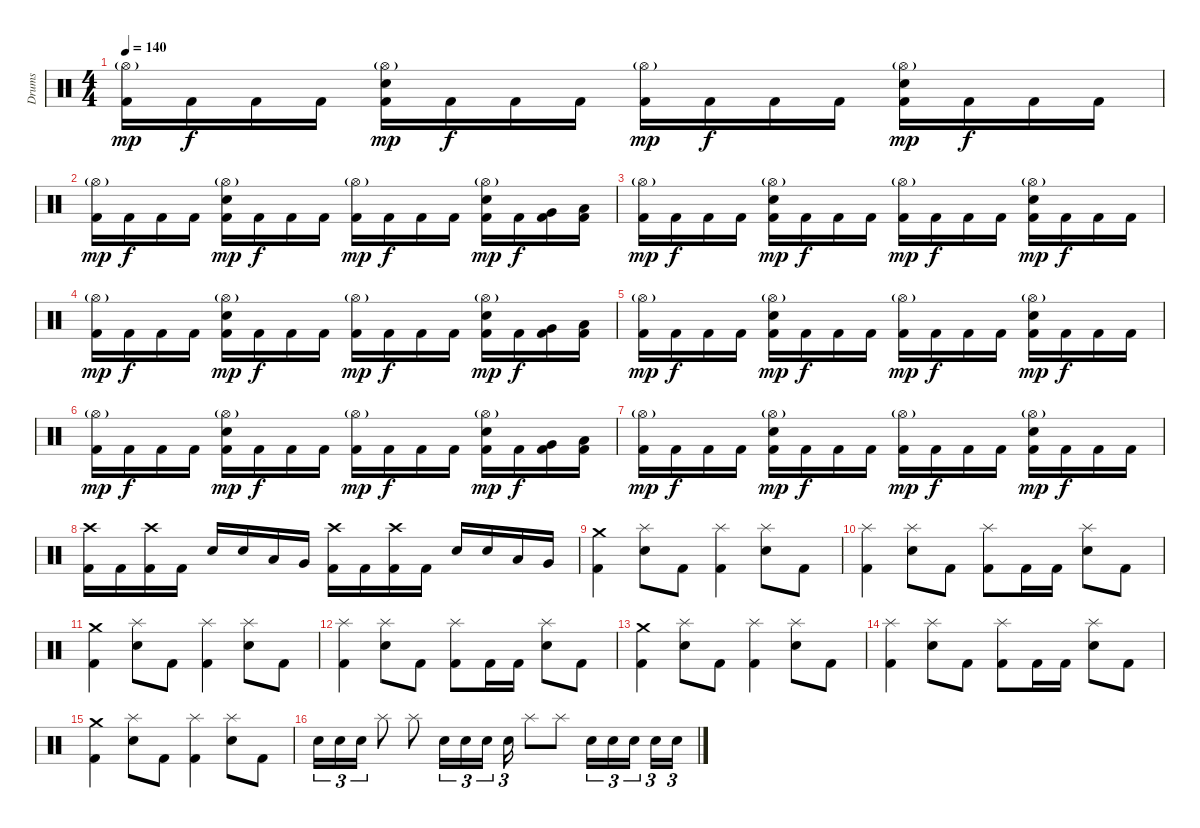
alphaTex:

\track ("Drums" "Drums") {instrument percussion}
\staff {score}
\articulation defaults
\ts (4 4)
\tempo 140
\clef neutral
\ks c
("Hi-Hat (open)"{g} "Kick (hit) 2").16{dy mp} "Kick (hit) 2".16{dy f} "Kick (hit) 2".16 "Kick (hit) 2".16 ("Hi-Hat (open)"{g} "Electric Snare (hit)" "Kick (hit) 2").16{dy mp} "Kick (hit) 2".16{dy f} "Kick (hit) 2".16 "Kick (hit) 2".16 ("Hi-Hat (open)"{g} "Kick (hit) 2").16{dy mp} "Kick (hit) 2".16{dy f} "Kick (hit) 2".16 "Kick (hit) 2".16 ("Hi-Hat (open)"{g} "Electric Snare (hit)" "Kick (hit) 2").16{dy mp} "Kick (hit) 2".16{dy f} "Kick (hit) 2".16 "Kick (hit) 2".16 |
("Hi-Hat (open)"{g} "Kick (hit) 2").16{dy mp} "Kick (hit) 2".16{dy f} "Kick (hit) 2".16 "Kick (hit) 2".16 ("Hi-Hat (open)"{g} "Electric Snare (hit)" "Kick (hit) 2").16{dy mp} "Kick (hit) 2".16{dy f} "Kick (hit) 2".16 "Kick (hit) 2".16 ("Hi-Hat (open)"{g} "Kick (hit) 2").16{dy mp} "Kick (hit) 2".16{dy f} "Kick (hit) 2".16 "Kick (hit) 2".16 ("Hi-Hat (open)"{g} "Electric Snare (hit)" "Kick (hit) 2").16{dy mp} "Kick (hit) 2".16{dy f} ("Very Low Tom (hit)" "Kick (hit) 2").16 ("Low Floor Tom (hit)" "Kick (hit) 2").16 |
("Hi-Hat (open)"{g} "Kick (hit) 2").16{dy mp} "Kick (hit) 2".16{dy f} "Kick (hit) 2".16 "Kick (hit) 2".16 ("Hi-Hat (open)"{g} "Electric Snare (hit)" "Kick (hit) 2").16{dy mp} "Kick (hit) 2".16{dy f} "Kick (hit) 2".16 "Kick (hit) 2".16 ("Hi-Hat (open)"{g} "Kick (hit) 2").16{dy mp} "Kick (hit) 2".16{dy f} "Kick (hit) 2".16 "Kick (hit) 2".16 ("Hi-Hat (open)"{g} "Electric Snare (hit)" "Kick (hit) 2").16{dy mp} "Kick (hit) 2".16{dy f} "Kick (hit) 2".16 "Kick (hit) 2".16 |
("Hi-Hat (open)"{g} "Kick (hit) 2").16{dy mp} "Kick (hit) 2".16{dy f} "Kick (hit) 2".16 "Kick (hit) 2".16 ("Hi-Hat (open)"{g} "Electric Snare (hit)" "Kick (hit) 2").16{dy mp} "Kick (hit) 2".16{dy f} "Kick (hit) 2".16 "Kick (hit) 2".16 ("Hi-Hat (open)"{g} "Kick (hit) 2").16{dy mp} "Kick (hit) 2".16{dy f} "Kick (hit) 2".16 "Kick (hit) 2".16 ("Hi-Hat (open)"{g} "Electric Snare (hit)" "Kick (hit) 2").16{dy mp} "Kick (hit) 2".16{dy f} ("Very Low Tom (hit)" "Kick (hit) 2").16 ("Low Floor Tom (hit)" "Kick (hit) 2").16 |
("Hi-Hat (open)"{g} "Kick (hit) 2").16{dy mp} "Kick (hit) 2".16{dy f} "Kick (hit) 2".16 "Kick (hit) 2".16 ("Hi-Hat (open)"{g} "Electric Snare (hit)" "Kick (hit) 2").16{dy mp} "Kick (hit) 2".16{dy f} "Kick (hit) 2".16 "Kick (hit) 2".16 ("Hi-Hat (open)"{g} "Kick (hit) 2").16{dy mp} "Kick (hit) 2".16{dy f} "Kick (hit) 2".16 "Kick (hit) 2".16 ("Hi-Hat (open)"{g} "Electric Snare (hit)" "Kick (hit) 2").16{dy mp} "Kick (hit) 2".16{dy f} "Kick (hit) 2".16 "Kick (hit) 2".16 |
("Hi-Hat (open)"{g} "Kick (hit) 2").16{dy mp} "Kick (hit) 2".16{dy f} "Kick (hit) 2".16 "Kick (hit) 2".16 ("Hi-Hat (open)"{g} "Electric Snare (hit)" "Kick (hit) 2").16{dy mp} "Kick (hit) 2".16{dy f} "Kick (hit) 2".16 "Kick (hit) 2".16 ("Hi-Hat (open)"{g} "Kick (hit) 2").16{dy mp} "Kick (hit) 2".16{dy f} "Kick (hit) 2".16 "Kick (hit) 2".16 ("Hi-Hat (open)"{g} "Electric Snare (hit)" "Kick (hit) 2").16{dy mp} "Kick (hit) 2".16{dy f} ("Very Low Tom (hit)" "Kick (hit) 2").16 ("Low Floor Tom (hit)" "Kick (hit) 2").16 |
("Hi-Hat (open)"{g} "Kick (hit) 2").16{dy mp} "Kick (hit) 2".16{dy f} "Kick (hit) 2".16 "Kick (hit) 2".16 ("Hi-Hat (open)"{g} "Electric Snare (hit)" "Kick (hit) 2").16{dy mp} "Kick (hit) 2".16{dy f} "Kick (hit) 2".16 "Kick (hit) 2".16 ("Hi-Hat (open)"{g} "Kick (hit) 2").16{dy mp} "Kick (hit) 2".16{dy f} "Kick (hit) 2".16 "Kick (hit) 2".16 ("Hi-Hat (open)"{g} "Electric Snare (hit)" "Kick (hit) 2").16{dy mp} "Kick (hit) 2".16{dy f} "Kick (hit) 2".16 "Kick (hit) 2".16 |
("Crash high (hit)" "Kick (hit) 2").16 "Kick (hit) 2".16 ("Crash high (hit)" "Kick (hit) 2").16 "Kick (hit) 2".16 "Electric Snare (hit)".16 "Electric Snare (hit)".16 "Low Tom (hit)".16 "Very Low Tom (hit)".16 ("Crash high (hit)" "Kick (hit) 2").16 "Kick (hit) 2".16 ("Crash high (hit)" "Kick (hit) 2").16 "Kick (hit) 2".16 "Electric Snare (hit)".16 "Electric Snare (hit)".16 "Low Tom (hit)".16 "Very Low Tom (hit)".16 |
("Crash medium (hit)" "Kick (hit) 2").4 ("Splash (hit)" "Electric Snare (hit)").8 "Kick (hit) 2".8 ("Splash (hit)" "Kick (hit) 2").4 ("Splash (hit)" "Electric Snare (hit)").8 "Kick (hit) 2".8 |
("Splash (hit)" "Kick (hit) 2").4 ("Splash (hit)" "Electric Snare (hit)").8 "Kick (hit) 2".8 ("Splash (hit)" "Kick (hit) 2").8 "Kick (hit) 2".16 "Kick (hit) 2".16 ("Splash (hit)" "Electric Snare (hit)").8 "Kick (hit) 2".8 |
("Crash medium (hit)" "Kick (hit) 2").4 ("Splash (hit)" "Electric Snare (hit)").8 "Kick (hit) 2".8 ("Splash (hit)" "Kick (hit) 2").4 ("Splash (hit)" "Electric Snare (hit)").8 "Kick (hit) 2".8 |
("Splash (hit)" "Kick (hit) 2").4 ("Splash (hit)" "Electric Snare (hit)").8 "Kick (hit) 2".8 ("Splash (hit)" "Kick (hit) 2").8 "Kick (hit) 2".16 "Kick (hit) 2".16 ("Splash (hit)" "Electric Snare (hit)").8 "Kick (hit) 2".8 |
("Crash medium (hit)" "Kick (hit) 2").4 ("Splash (hit)" "Electric Snare (hit)").8 "Kick (hit) 2".8 ("Splash (hit)" "Kick (hit) 2").4 ("Splash (hit)" "Electric Snare (hit)").8 "Kick (hit) 2".8 |
("Splash (hit)" "Kick (hit) 2").4 ("Splash (hit)" "Electric Snare (hit)").8 "Kick (hit) 2".8 ("Splash (hit)" "Kick (hit) 2").8 "Kick (hit) 2".16 "Kick (hit) 2".16 ("Splash (hit)" "Electric Snare (hit)").8 "Kick (hit) 2".8 |
("Crash medium (hit)" "Kick (hit) 2").4 ("Splash (hit)" "Electric Snare (hit)").8 "Kick (hit) 2".8 ("Splash (hit)" "Kick (hit) 2").4 ("Splash (hit)" "Electric Snare (hit)").8 "Kick (hit) 2".8 |
"Electric Snare (hit)".16{tu (3 2)} "Electric Snare (hit)".16{tu (3 2)} "Electric Snare (hit)".16{tu (3 2)} "Splash (hit)".8 "Splash (hit)".8 "Electric Snare (hit)".16{tu (3 2)} "Electric Snare (hit)".16{tu (3 2)} "Electric Snare (hit)".16{tu (3 2)} "Electric Snare (hit)".16{tu (3 2)} "Splash (hit)".8 "Splash (hit)".8 "Electric Snare (hit)".16{tu (3 2)} "Electric Snare (hit)".16{tu (3 2)} "Electric Snare (hit)".16{tu (3 2)} "Electric Snare (hit)".16{tu (3 2)} "Electric Snare (hit)".16{tu (3 2)}
